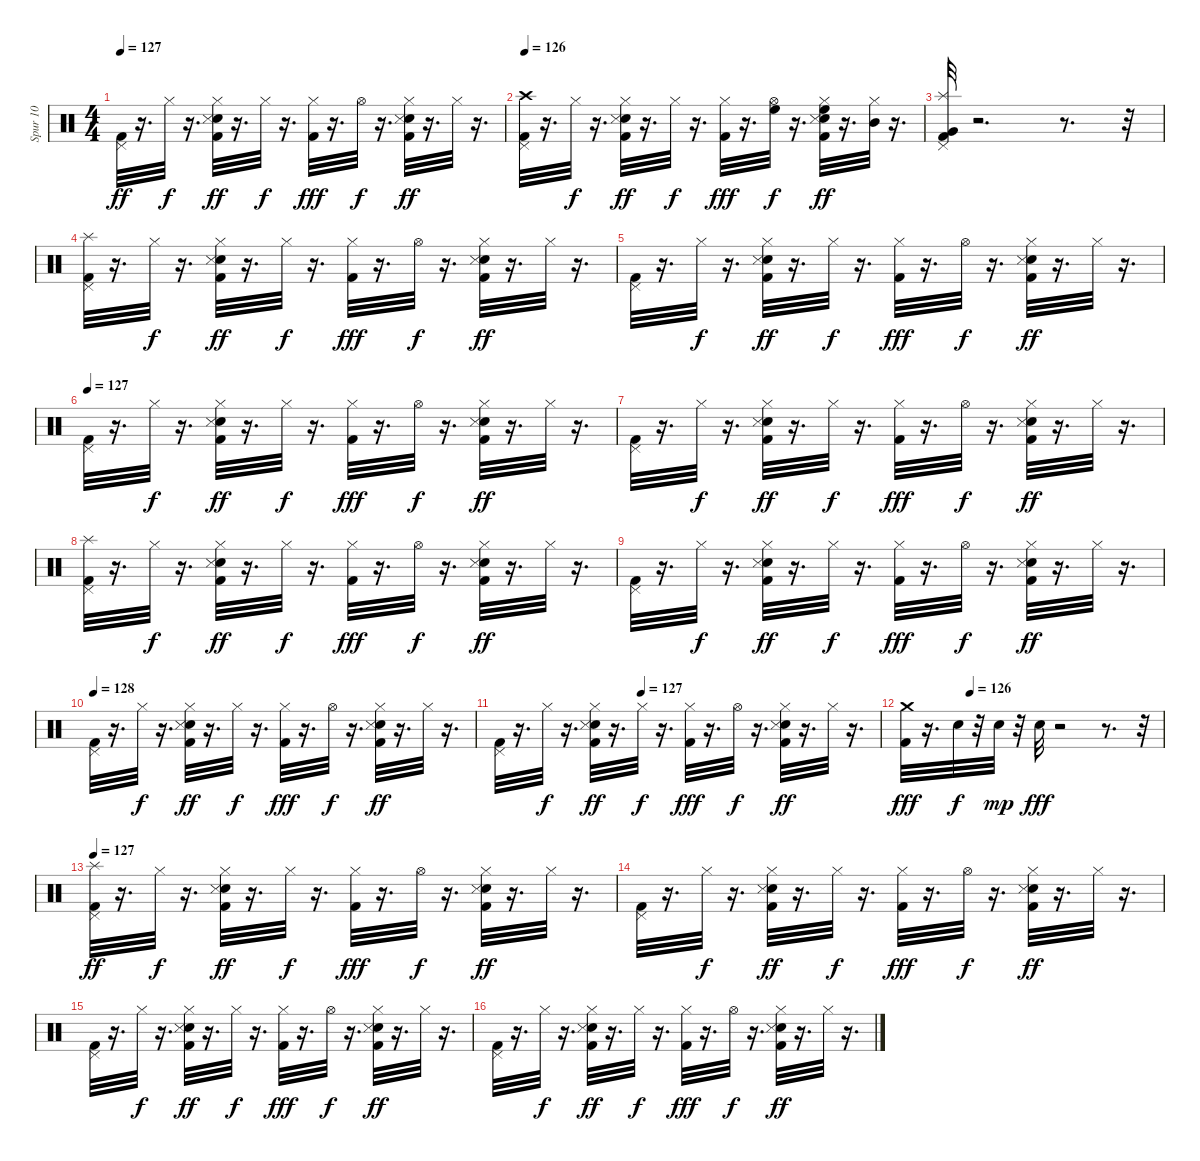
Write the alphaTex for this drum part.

\track ("Spur 10" "Spur 10") {instrument percussion}
\staff {score}
\articulation defaults
\ts (4 4)
\tempo 127
\clef neutral
\ks c
("Kick (hit) 2" "Pedal Hi-Hat (hit)").32{dy ff} r.16{d} "Hi-Hat (closed)".32{dy f} r.16{d} ("Snare (hit) 2" "Kick (hit) 2" "Hi-Hat (closed)" "Snare (side stick) 3").32{dy ff} r.16{d} "Hi-Hat (closed)".32{dy f} r.16{d} ("Kick (hit) 2" "Hi-Hat (closed)").32{dy fff} r.16{d} "Hi-Hat (open)".32{dy f} r.16{d} ("Snare (hit) 2" "Kick (hit) 2" "Hi-Hat (closed)" "Snare (side stick) 3").32{dy ff} r.16{d} "Hi-Hat (closed)".32 r.16{d} |
\tempo 126
("Crash high (hit)" "Kick (hit) 2" "Pedal Hi-Hat (hit)").32 r.16{d} "Hi-Hat (closed)".32{dy f} r.16{d} ("Snare (hit) 2" "Kick (hit) 2" "Hi-Hat (closed)" "Snare (side stick) 3").32{dy ff} r.16{d} "Hi-Hat (closed)".32{dy f} r.16{d} ("Kick (hit) 2" "Hi-Hat (closed)").32{dy fff} r.16{d} ("Hi-Hat (open)" "High Floor Tom (hit)").32{dy f} r.16{d} ("Snare (hit) 2" "Kick (hit) 2" "Hi-Hat (closed)" "Snare (side stick) 3" "High Floor Tom (hit)").32{dy ff} r.16{d} ("Hi-Hat (closed)" "Mid Tom (hit)").32 r.16{d} |
("Kick (hit) 2" "Pedal Hi-Hat (hit)" "Splash (hit)" "Very Low Tom (hit)").32 r.2{d} r.8{d} r.32 |
("Splash (hit)" "Kick (hit) 2" "Pedal Hi-Hat (hit)").32 r.16{d} "Hi-Hat (closed)".32{dy f} r.16{d} ("Snare (hit) 2" "Kick (hit) 2" "Hi-Hat (closed)" "Snare (side stick) 3").32{dy ff} r.16{d} "Hi-Hat (closed)".32{dy f} r.16{d} ("Kick (hit) 2" "Hi-Hat (closed)").32{dy fff} r.16{d} "Hi-Hat (open)".32{dy f} r.16{d} ("Snare (hit) 2" "Kick (hit) 2" "Hi-Hat (closed)" "Snare (side stick) 3").32{dy ff} r.16{d} "Hi-Hat (closed)".32 r.16{d} |
("Kick (hit) 2" "Pedal Hi-Hat (hit)").32 r.16{d} "Hi-Hat (closed)".32{dy f} r.16{d} ("Snare (hit) 2" "Kick (hit) 2" "Hi-Hat (closed)" "Snare (side stick) 3").32{dy ff} r.16{d} "Hi-Hat (closed)".32{dy f} r.16{d} ("Kick (hit) 2" "Hi-Hat (closed)").32{dy fff} r.16{d} "Hi-Hat (open)".32{dy f} r.16{d} ("Snare (hit) 2" "Kick (hit) 2" "Hi-Hat (closed)" "Snare (side stick) 3").32{dy ff} r.16{d} "Hi-Hat (closed)".32 r.16{d} |
\tempo 127
("Kick (hit) 2" "Pedal Hi-Hat (hit)").32 r.16{d} "Hi-Hat (closed)".32{dy f} r.16{d} ("Snare (hit) 2" "Kick (hit) 2" "Hi-Hat (closed)" "Snare (side stick) 3").32{dy ff} r.16{d} "Hi-Hat (closed)".32{dy f} r.16{d} ("Kick (hit) 2" "Hi-Hat (closed)").32{dy fff} r.16{d} "Hi-Hat (open)".32{dy f} r.16{d} ("Snare (hit) 2" "Kick (hit) 2" "Hi-Hat (closed)" "Snare (side stick) 3").32{dy ff} r.16{d} "Hi-Hat (closed)".32 r.16{d} |
("Kick (hit) 2" "Pedal Hi-Hat (hit)").32 r.16{d} "Hi-Hat (closed)".32{dy f} r.16{d} ("Snare (hit) 2" "Kick (hit) 2" "Hi-Hat (closed)" "Snare (side stick) 3").32{dy ff} r.16{d} "Hi-Hat (closed)".32{dy f} r.16{d} ("Kick (hit) 2" "Hi-Hat (closed)").32{dy fff} r.16{d} "Hi-Hat (open)".32{dy f} r.16{d} ("Snare (hit) 2" "Kick (hit) 2" "Hi-Hat (closed)" "Snare (side stick) 3").32{dy ff} r.16{d} "Hi-Hat (closed)".32 r.16{d} |
("Splash (hit)" "Kick (hit) 2" "Pedal Hi-Hat (hit)").32 r.16{d} "Hi-Hat (closed)".32{dy f} r.16{d} ("Snare (hit) 2" "Kick (hit) 2" "Hi-Hat (closed)" "Snare (side stick) 3").32{dy ff} r.16{d} "Hi-Hat (closed)".32{dy f} r.16{d} ("Kick (hit) 2" "Hi-Hat (closed)").32{dy fff} r.16{d} "Hi-Hat (open)".32{dy f} r.16{d} ("Snare (hit) 2" "Kick (hit) 2" "Hi-Hat (closed)" "Snare (side stick) 3").32{dy ff} r.16{d} "Hi-Hat (closed)".32 r.16{d} |
("Kick (hit) 2" "Pedal Hi-Hat (hit)").32 r.16{d} "Hi-Hat (closed)".32{dy f} r.16{d} ("Snare (hit) 2" "Kick (hit) 2" "Hi-Hat (closed)" "Snare (side stick) 3").32{dy ff} r.16{d} "Hi-Hat (closed)".32{dy f} r.16{d} ("Kick (hit) 2" "Hi-Hat (closed)").32{dy fff} r.16{d} "Hi-Hat (open)".32{dy f} r.16{d} ("Snare (hit) 2" "Kick (hit) 2" "Hi-Hat (closed)" "Snare (side stick) 3").32{dy ff} r.16{d} "Hi-Hat (closed)".32 r.16{d} |
\tempo 128
("Kick (hit) 2" "Pedal Hi-Hat (hit)").32 r.16{d} "Hi-Hat (closed)".32{dy f} r.16{d} ("Snare (hit) 2" "Kick (hit) 2" "Hi-Hat (closed)" "Snare (side stick) 3").32{dy ff} r.16{d} "Hi-Hat (closed)".32{dy f} r.16{d} ("Kick (hit) 2" "Hi-Hat (closed)").32{dy fff} r.16{d} "Hi-Hat (open)".32{dy f} r.16{d} ("Snare (hit) 2" "Kick (hit) 2" "Hi-Hat (closed)" "Snare (side stick) 3").32{dy ff} r.16{d} "Hi-Hat (closed)".32 r.16{d} |
\tempo (127 0.375)
("Kick (hit) 2" "Pedal Hi-Hat (hit)").32 r.16{d} "Hi-Hat (closed)".32{dy f} r.16{d} ("Snare (hit) 2" "Kick (hit) 2" "Hi-Hat (closed)" "Snare (side stick) 3").32{dy ff} r.16{d} "Hi-Hat (closed)".32{dy f} r.16{d} ("Kick (hit) 2" "Hi-Hat (closed)").32{dy fff} r.16{d} "Hi-Hat (open)".32{dy f} r.16{d} ("Snare (hit) 2" "Kick (hit) 2" "Hi-Hat (closed)" "Snare (side stick) 3").32{dy ff} r.16{d} "Hi-Hat (closed)".32 r.16{d} |
\tempo (126 0.25)
("Crash medium (hit)" "Kick (hit) 2").32{dy fff} r.16{d} "Electric Snare (hit)".32{dy f} r.32 "Electric Snare (hit)".32{dy mp} r.32 "Electric Snare (hit)".32{dy fff} r.2 r.8{d} r.32 |
\tempo 127
("Splash (hit)" "Kick (hit) 2" "Pedal Hi-Hat (hit)").32{dy ff} r.16{d} "Hi-Hat (closed)".32{dy f} r.16{d} ("Snare (hit) 2" "Kick (hit) 2" "Hi-Hat (closed)" "Snare (side stick) 3").32{dy ff} r.16{d} "Hi-Hat (closed)".32{dy f} r.16{d} ("Kick (hit) 2" "Hi-Hat (closed)").32{dy fff} r.16{d} "Hi-Hat (open)".32{dy f} r.16{d} ("Snare (hit) 2" "Kick (hit) 2" "Hi-Hat (closed)" "Snare (side stick) 3").32{dy ff} r.16{d} "Hi-Hat (closed)".32 r.16{d} |
("Kick (hit) 2" "Pedal Hi-Hat (hit)").32 r.16{d} "Hi-Hat (closed)".32{dy f} r.16{d} ("Snare (hit) 2" "Kick (hit) 2" "Hi-Hat (closed)" "Snare (side stick) 3").32{dy ff} r.16{d} "Hi-Hat (closed)".32{dy f} r.16{d} ("Kick (hit) 2" "Hi-Hat (closed)").32{dy fff} r.16{d} "Hi-Hat (open)".32{dy f} r.16{d} ("Snare (hit) 2" "Kick (hit) 2" "Hi-Hat (closed)" "Snare (side stick) 3").32{dy ff} r.16{d} "Hi-Hat (closed)".32 r.16{d} |
("Kick (hit) 2" "Pedal Hi-Hat (hit)").32 r.16{d} "Hi-Hat (closed)".32{dy f} r.16{d} ("Snare (hit) 2" "Kick (hit) 2" "Hi-Hat (closed)" "Snare (side stick) 3").32{dy ff} r.16{d} "Hi-Hat (closed)".32{dy f} r.16{d} ("Kick (hit) 2" "Hi-Hat (closed)").32{dy fff} r.16{d} "Hi-Hat (open)".32{dy f} r.16{d} ("Snare (hit) 2" "Kick (hit) 2" "Hi-Hat (closed)" "Snare (side stick) 3").32{dy ff} r.16{d} "Hi-Hat (closed)".32 r.16{d} |
("Kick (hit) 2" "Pedal Hi-Hat (hit)").32 r.16{d} "Hi-Hat (closed)".32{dy f} r.16{d} ("Snare (hit) 2" "Kick (hit) 2" "Hi-Hat (closed)" "Snare (side stick) 3").32{dy ff} r.16{d} "Hi-Hat (closed)".32{dy f} r.16{d} ("Kick (hit) 2" "Hi-Hat (closed)").32{dy fff} r.16{d} "Hi-Hat (open)".32{dy f} r.16{d} ("Snare (hit) 2" "Kick (hit) 2" "Hi-Hat (closed)" "Snare (side stick) 3").32{dy ff} r.16{d} "Hi-Hat (closed)".32 r.16{d}
